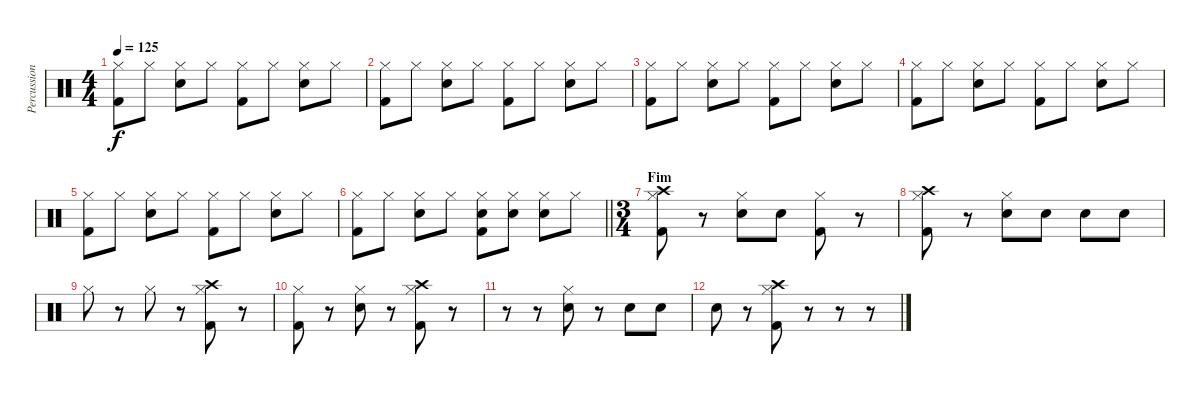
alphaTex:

\track ("Percussion" "Percussion") {instrument percussion}
\staff {score}
\articulation defaults
\ts (4 4)
\tempo 125
\clef neutral
\ks c
("Kick (hit) 2" "Hi-Hat (closed)").8{dy f} "Hi-Hat (closed)".8 ("Electric Snare (hit)" "Hi-Hat (closed)").8 "Hi-Hat (closed)".8 ("Kick (hit) 2" "Hi-Hat (closed)").8 "Hi-Hat (closed)".8 ("Electric Snare (hit)" "Hi-Hat (closed)").8 "Hi-Hat (closed)".8 |
("Kick (hit) 2" "Hi-Hat (closed)").8 "Hi-Hat (closed)".8 ("Electric Snare (hit)" "Hi-Hat (closed)").8 "Hi-Hat (closed)".8 ("Kick (hit) 2" "Hi-Hat (closed)").8 "Hi-Hat (closed)".8 ("Electric Snare (hit)" "Hi-Hat (closed)").8 "Hi-Hat (closed)".8 |
("Kick (hit) 2" "Hi-Hat (closed)").8 "Hi-Hat (closed)".8 ("Electric Snare (hit)" "Hi-Hat (closed)").8 "Hi-Hat (closed)".8 ("Kick (hit) 2" "Hi-Hat (closed)").8 "Hi-Hat (closed)".8 ("Electric Snare (hit)" "Hi-Hat (closed)").8 "Hi-Hat (closed)".8 |
("Kick (hit) 2" "Hi-Hat (closed)").8 "Hi-Hat (closed)".8 ("Electric Snare (hit)" "Hi-Hat (closed)").8 "Hi-Hat (closed)".8 ("Kick (hit) 2" "Hi-Hat (closed)").8 "Hi-Hat (closed)".8 ("Electric Snare (hit)" "Hi-Hat (closed)").8 "Hi-Hat (closed)".8 |
("Kick (hit) 2" "Hi-Hat (closed)").8 "Hi-Hat (closed)".8 ("Electric Snare (hit)" "Hi-Hat (closed)").8 "Hi-Hat (closed)".8 ("Kick (hit) 2" "Hi-Hat (closed)").8 "Hi-Hat (closed)".8 ("Electric Snare (hit)" "Hi-Hat (closed)").8 "Hi-Hat (closed)".8 |
\barLineRight lightlight
("Kick (hit) 2" "Hi-Hat (closed)").8 "Hi-Hat (closed)".8 ("Electric Snare (hit)" "Hi-Hat (closed)").8 "Hi-Hat (closed)".8 ("Kick (hit) 2" "Hi-Hat (closed)" "Electric Snare (hit)").8 ("Electric Snare (hit)" "Hi-Hat (closed)").8 ("Electric Snare (hit)" "Hi-Hat (closed)").8 "Hi-Hat (closed)".8 |
\ts (3 4)
\section ("" "Fim")
("Kick (hit) 2" "Hi-Hat (closed)" "Crash high (hit)").8 r.8 ("Electric Snare (hit)" "Hi-Hat (closed)").8 "Electric Snare (hit)".8 ("Kick (hit) 2" "Hi-Hat (closed)").8 r.8 |
("Kick (hit) 2" "Hi-Hat (closed)" "Crash high (hit)").8 r.8 ("Electric Snare (hit)" "Hi-Hat (closed)").8 "Electric Snare (hit)".8 "Electric Snare (hit)".8 "Electric Snare (hit)".8 |
"Hi-Hat (closed)".8 r.8 "Hi-Hat (closed)".8 r.8 ("Kick (hit) 2" "Hi-Hat (closed)" "Crash high (hit)").8 r.8 |
("Kick (hit) 2" "Hi-Hat (closed)").8 r.8 ("Electric Snare (hit)" "Hi-Hat (closed)").8 r.8 ("Kick (hit) 2" "Hi-Hat (closed)" "Crash high (hit)").8 r.8 |
r.8 r.8 ("Electric Snare (hit)" "Hi-Hat (closed)").8 r.8 "Electric Snare (hit)".8 "Electric Snare (hit)".8 |
"Electric Snare (hit)".8 r.8 ("Kick (hit) 2" "Hi-Hat (closed)" "Crash high (hit)").8 r.8 r.8 r.8
